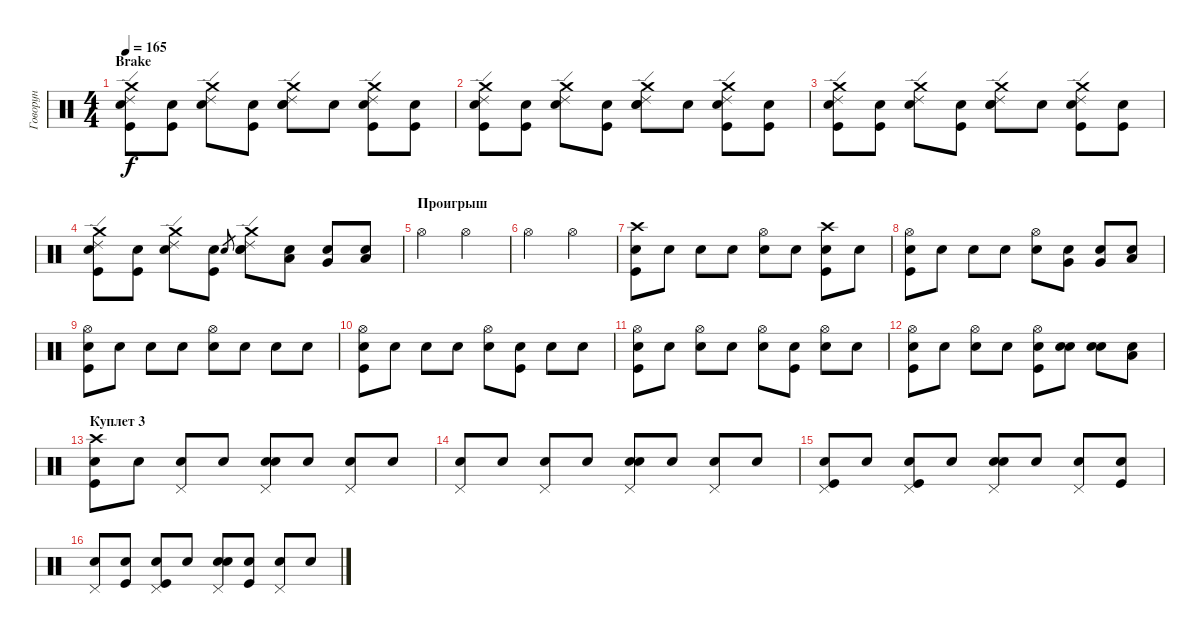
\track ("Говорун" "Говорун") {instrument percussion}
\staff {score}
\articulation defaults
\ts (4 4)
\section ("" "Brake")
\tempo 165
\clef neutral
\ks c
("Crash medium (hit)" "Ride (edge) 2" "Kick (hit)" "Snare (hit)"{x}).8{dy f} ("Kick (hit)" "Snare (hit)"{x}).8 ("Crash medium (hit)" "Ride (edge) 2" "Snare (hit)"{x}).8 ("Kick (hit)" "Snare (hit)"{x}).8 ("Crash medium (hit)" "Ride (edge) 2" "Snare (hit) 2" "Snare (hit)"{x}).8 "Snare (hit)"{x}.8 ("Crash medium (hit)" "Ride (edge) 2" "Kick (hit)" "Snare (hit)"{x}).8 ("Kick (hit)" "Snare (hit)"{x}).8 |
("Crash medium (hit)" "Ride (edge) 2" "Kick (hit)" "Snare (hit)"{x}).8 ("Kick (hit)" "Snare (hit)"{x}).8 ("Crash medium (hit)" "Ride (edge) 2" "Snare (hit)"{x}).8 ("Kick (hit)" "Snare (hit)"{x}).8 ("Crash medium (hit)" "Ride (edge) 2" "Snare (hit) 2" "Snare (hit)"{x}).8 "Snare (hit)"{x}.8 ("Crash medium (hit)" "Ride (edge) 2" "Kick (hit)" "Snare (hit)"{x}).8 ("Kick (hit)" "Snare (hit)"{x}).8 |
("Crash medium (hit)" "Ride (edge) 2" "Kick (hit)" "Snare (hit)"{x}).8 ("Kick (hit)" "Snare (hit)"{x}).8 ("Crash medium (hit)" "Ride (edge) 2" "Snare (hit)"{x}).8 ("Kick (hit)" "Snare (hit)"{x}).8 ("Crash medium (hit)" "Ride (edge) 2" "Snare (hit) 2" "Snare (hit)"{x}).8 "Snare (hit)"{x}.8 ("Crash medium (hit)" "Ride (edge) 2" "Kick (hit)" "Snare (hit)"{x}).8 ("Kick (hit)" "Snare (hit)"{x}).8 |
("Crash medium (hit)" "Ride (edge) 2" "Kick (hit)" "Snare (hit)"{x}).8 ("Kick (hit)" "Snare (hit)"{x}).8 ("Crash medium (hit)" "Ride (edge) 2" "Snare (hit)"{x}).8 ("Kick (hit)" "Snare (hit)"{x}).8 "Snare (hit) 2".8{gr} ("Crash medium (hit)" "Ride (edge) 2" "Snare (hit) 2" "Snare (hit)"{x}).8 ("Low Tom (hit)" "Snare (hit)"{x}).8 ("Very Low Tom (hit)" "Snare (hit)"{x}).8 ("Low Floor Tom (hit)" "Snare (hit)"{x}).8 |
\section ("" "Проигрыш")
"Hi-Hat (open)".2 "Hi-Hat (open)".2 |
"Hi-Hat (open)".2 "Hi-Hat (open)".2 |
("Crash high (hit)" "Kick (hit)" "Snare (hit)"{x}).8 "Snare (hit)"{x}.8 "Snare (hit)"{x}.8 "Snare (hit)"{x}.8 ("Hi-Hat (open)" "Snare (hit)"{x}).8 "Snare (hit)"{x}.8 ("Crash high (hit)" "Kick (hit)" "Snare (hit)"{x}).8 "Snare (hit)"{x}.8 |
("Hi-Hat (open)" "Kick (hit)" "Snare (hit)"{x}).8 "Snare (hit)"{x}.8 "Snare (hit)"{x}.8 "Snare (hit)"{x}.8 ("Hi-Hat (open)" "Snare (hit)"{x}).8 ("Very Low Tom (hit)" "Snare (hit)"{x}).8 ("Very Low Tom (hit)" "Snare (hit)"{x}).8 ("Low Floor Tom (hit)" "Snare (hit)"{x}).8 |
("Hi-Hat (open)" "Kick (hit)" "Snare (hit)"{x}).8 "Snare (hit)"{x}.8 "Snare (hit)"{x}.8 "Snare (hit)"{x}.8 ("Hi-Hat (open)" "Snare (hit)"{x}).8 "Snare (hit)"{x}.8 "Snare (hit)"{x}.8 "Snare (hit)"{x}.8 |
("Hi-Hat (open)" "Kick (hit)" "Snare (hit)"{x}).8 "Snare (hit)"{x}.8 "Snare (hit)"{x}.8 "Snare (hit)"{x}.8 ("Hi-Hat (open)" "Snare (hit)"{x}).8 ("Kick (hit)" "Snare (hit)"{x}).8 "Snare (hit)"{x}.8 "Snare (hit)"{x}.8 |
("Hi-Hat (open)" "Kick (hit)" "Snare (hit)"{x}).8 "Snare (hit)"{x}.8 ("Hi-Hat (open)" "Snare (hit)"{x}).8 "Snare (hit)"{x}.8 ("Hi-Hat (open)" "Snare (hit)"{x}).8 ("Kick (hit)" "Snare (hit)"{x}).8 ("Hi-Hat (open)" "Snare (hit)"{x}).8 "Snare (hit)"{x}.8 |
("Hi-Hat (open)" "Kick (hit)" "Snare (hit)"{x}).8 "Snare (hit)"{x}.8 ("Hi-Hat (open)" "Snare (hit)"{x}).8 "Snare (hit)"{x}.8 ("Hi-Hat (open)" "Kick (hit)" "Snare (hit)"{x}).8 ("Snare (hit) 2" "Snare (hit)"{x}).8 ("Snare (hit) 2" "Snare (hit)"{x}).8 ("Low Tom (hit)" "Snare (hit)"{x}).8 |
\section ("" "Куплет 3")
("Crash high (hit)" "Kick (hit)" "Snare (hit)"{x}).8 "Snare (hit)"{x}.8 ("Pedal Hi-Hat (hit)" "Snare (hit)"{x}).8 "Snare (hit)"{x}.8 ("Pedal Hi-Hat (hit)" "Snare (hit) 2" "Snare (hit)"{x}).8 "Snare (hit)"{x}.8 ("Pedal Hi-Hat (hit)" "Snare (hit)"{x}).8 "Snare (hit)"{x}.8 |
("Pedal Hi-Hat (hit)" "Snare (hit)"{x}).8 "Snare (hit)"{x}.8 ("Pedal Hi-Hat (hit)" "Snare (hit)"{x}).8 "Snare (hit)"{x}.8 ("Pedal Hi-Hat (hit)" "Snare (hit) 2" "Snare (hit)"{x}).8 "Snare (hit)"{x}.8 ("Pedal Hi-Hat (hit)" "Snare (hit)"{x}).8 "Snare (hit)"{x}.8 |
("Pedal Hi-Hat (hit)" "Kick (hit)" "Snare (hit)"{x}).8 "Snare (hit)"{x}.8 ("Pedal Hi-Hat (hit)" "Kick (hit)" "Snare (hit)"{x}).8 "Snare (hit)"{x}.8 ("Pedal Hi-Hat (hit)" "Snare (hit) 2" "Snare (hit)"{x}).8 "Snare (hit)"{x}.8 ("Pedal Hi-Hat (hit)" "Snare (hit)"{x}).8 ("Kick (hit)" "Snare (hit)"{x}).8 |
("Pedal Hi-Hat (hit)" "Snare (hit)"{x}).8 ("Kick (hit)" "Snare (hit)"{x}).8 ("Pedal Hi-Hat (hit)" "Kick (hit)" "Snare (hit)"{x}).8 "Snare (hit)"{x}.8 ("Pedal Hi-Hat (hit)" "Snare (hit) 2" "Snare (hit)"{x}).8 ("Kick (hit)" "Snare (hit)"{x}).8 ("Pedal Hi-Hat (hit)" "Snare (hit)"{x}).8 "Snare (hit)"{x}.8
